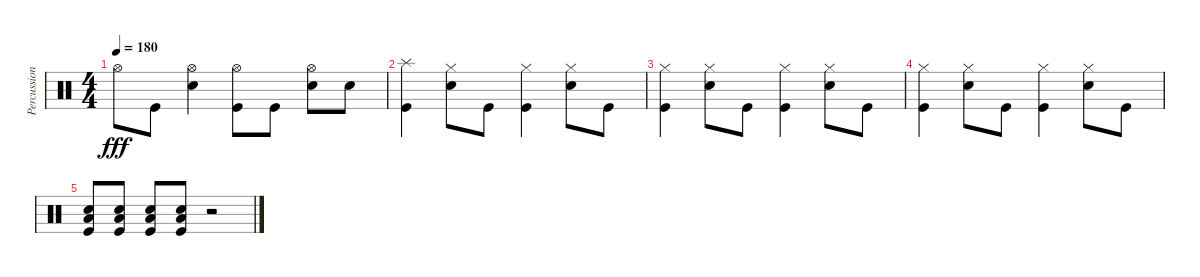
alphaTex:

\track ("Percussion" "Percussion") {instrument percussion}
\staff {score}
\articulation defaults
\ts (4 4)
\tempo 180
\clef neutral
\ks c "Hi-Hat (open)".8{dy fff} "Kick (hit)".8
("Hi-Hat (open)" "Snare (hit) 2").4 ("Hi-Hat (open)" "Kick (hit)").8 "Kick (hit)".8 ("Hi-Hat (open)" "Snare (hit) 2").8 "Snare (hit) 2".8 |
("Splash (hit)" "Kick (hit)").4 ("Hi-Hat (closed)" "Snare (hit) 2").8 "Kick (hit)".8 ("Hi-Hat (closed)" "Kick (hit)").4 ("Hi-Hat (closed)" "Snare (hit) 2").8 "Kick (hit)".8 |
("Hi-Hat (closed)" "Kick (hit)").4 ("Hi-Hat (closed)" "Snare (hit) 2").8 "Kick (hit)".8 ("Hi-Hat (closed)" "Kick (hit)").4 ("Hi-Hat (closed)" "Snare (hit) 2").8 "Kick (hit)".8 |
("Hi-Hat (closed)" "Kick (hit)").4 ("Hi-Hat (closed)" "Snare (hit) 2").8 "Kick (hit)".8 ("Hi-Hat (closed)" "Kick (hit)").4 ("Hi-Hat (closed)" "Snare (hit) 2").8 "Kick (hit)".8 |
("Low Tom (hit)" "Snare (hit) 2" "Kick (hit)").8 ("Low Tom (hit)" "Snare (hit) 2" "Kick (hit)").8 ("Low Tom (hit)" "Snare (hit) 2" "Kick (hit)").8 ("Low Tom (hit)" "Snare (hit) 2" "Kick (hit)").8 r.2
